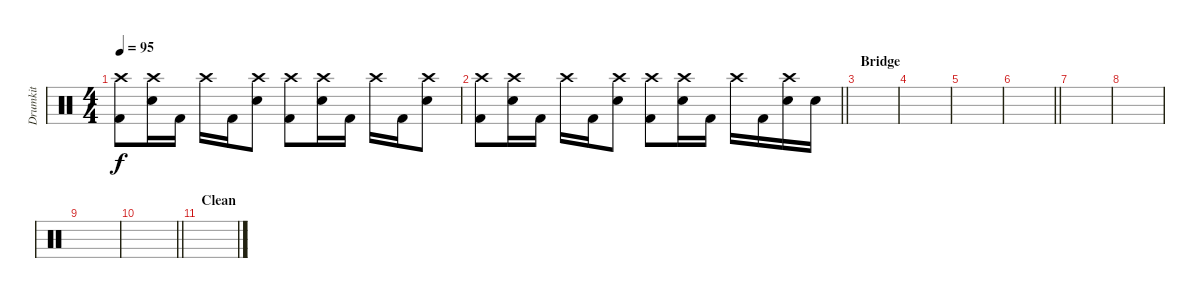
\track ("Drumkit" "Drumkit") {instrument percussion}
\staff {score}
\articulation defaults
\ts (4 4)
\tempo 95
\clef neutral
\ks c
("Crash high (hit)" "Kick (hit) 2").8{dy f} ("Crash high (hit)" "Snare (hit) 2").16 "Kick (hit) 2".16 "Crash high (hit)".16 "Kick (hit) 2".16 ("Crash high (hit)" "Snare (hit) 2").8 ("Crash high (hit)" "Kick (hit) 2").8 ("Crash high (hit)" "Snare (hit) 2").16 "Kick (hit) 2".16 "Crash high (hit)".16 "Kick (hit) 2".16 ("Crash high (hit)" "Snare (hit) 2").8 |
\barLineRight lightlight
("Crash high (hit)" "Kick (hit) 2").8 ("Crash high (hit)" "Snare (hit) 2").16 "Kick (hit) 2".16 "Crash high (hit)".16 "Kick (hit) 2".16 ("Crash high (hit)" "Snare (hit) 2").8 ("Crash high (hit)" "Kick (hit) 2").8 ("Crash high (hit)" "Snare (hit) 2").16 "Kick (hit) 2".16 "Crash high (hit)".16 "Kick (hit) 2".16 ("Crash high (hit)" "Snare (hit) 2").16 "Snare (hit) 2".16 |
\section ("" "Bridge")
|
|
|
\barLineRight lightlight
|
|
|
|
\barLineRight lightlight
|
\section ("" "Clean")
